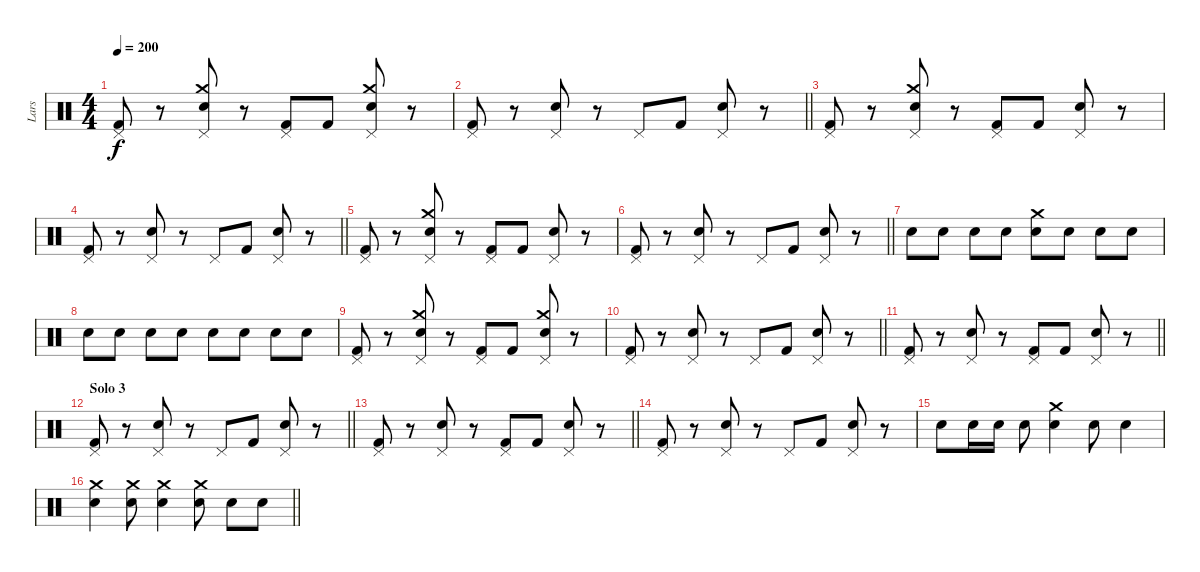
\track ("Lars" "Lars") {instrument percussion}
\staff {score}
\articulation defaults
\ts (4 4)
\tempo 200
\clef neutral
\ks c
("Pedal Hi-Hat (hit)" "Kick (hit) 2").8{dy f} r.8 ("Crash medium (hit)" "Pedal Hi-Hat (hit)" "Snare (hit) 2").8 r.8 ("Pedal Hi-Hat (hit)" "Kick (hit) 2").8 "Kick (hit) 2".8 ("Crash medium (hit)" "Pedal Hi-Hat (hit)" "Snare (hit) 2").8 r.8 |
\barLineRight lightlight
("Pedal Hi-Hat (hit)" "Kick (hit) 2").8 r.8 ("Pedal Hi-Hat (hit)" "Snare (hit) 2").8 r.8 "Pedal Hi-Hat (hit)".8 "Kick (hit) 2".8 ("Pedal Hi-Hat (hit)" "Snare (hit) 2").8 r.8 |
("Pedal Hi-Hat (hit)" "Kick (hit) 2").8 r.8 ("Crash medium (hit)" "Pedal Hi-Hat (hit)" "Snare (hit) 2").8 r.8 ("Pedal Hi-Hat (hit)" "Kick (hit) 2").8 "Kick (hit) 2".8 ("Pedal Hi-Hat (hit)" "Snare (hit) 2").8 r.8 |
\barLineRight lightlight
("Pedal Hi-Hat (hit)" "Kick (hit) 2").8 r.8 ("Pedal Hi-Hat (hit)" "Snare (hit) 2").8 r.8 "Pedal Hi-Hat (hit)".8 "Kick (hit) 2".8 ("Pedal Hi-Hat (hit)" "Snare (hit) 2").8 r.8 |
("Pedal Hi-Hat (hit)" "Kick (hit) 2").8 r.8 ("Crash medium (hit)" "Pedal Hi-Hat (hit)" "Snare (hit) 2").8 r.8 ("Pedal Hi-Hat (hit)" "Kick (hit) 2").8 "Kick (hit) 2".8 ("Pedal Hi-Hat (hit)" "Snare (hit) 2").8 r.8 |
\barLineRight lightlight
("Pedal Hi-Hat (hit)" "Kick (hit) 2").8 r.8 ("Pedal Hi-Hat (hit)" "Snare (hit) 2").8 r.8 "Pedal Hi-Hat (hit)".8 "Kick (hit) 2".8 ("Pedal Hi-Hat (hit)" "Snare (hit) 2").8 r.8 |
"Snare (hit) 2".8 "Snare (hit) 2".8 "Snare (hit) 2".8 "Snare (hit) 2".8 ("Crash medium (hit)" "Snare (hit) 2").8 "Snare (hit) 2".8 "Snare (hit) 2".8 "Snare (hit) 2".8 |
"Snare (hit) 2".8 "Snare (hit) 2".8 "Snare (hit) 2".8 "Snare (hit) 2".8 "Snare (hit) 2".8 "Snare (hit) 2".8 "Snare (hit) 2".8 "Snare (hit) 2".8 |
("Pedal Hi-Hat (hit)" "Kick (hit) 2").8 r.8 ("Crash medium (hit)" "Pedal Hi-Hat (hit)" "Snare (hit) 2").8 r.8 ("Pedal Hi-Hat (hit)" "Kick (hit) 2").8 "Kick (hit) 2".8 ("Crash medium (hit)" "Pedal Hi-Hat (hit)" "Snare (hit) 2").8 r.8 |
\barLineRight lightlight
("Pedal Hi-Hat (hit)" "Kick (hit) 2").8 r.8 ("Pedal Hi-Hat (hit)" "Snare (hit) 2").8 r.8 "Pedal Hi-Hat (hit)".8 "Kick (hit) 2".8 ("Pedal Hi-Hat (hit)" "Snare (hit) 2").8 r.8 |
\barLineRight lightlight
("Pedal Hi-Hat (hit)" "Kick (hit) 2").8 r.8 ("Pedal Hi-Hat (hit)" "Snare (hit) 2").8 r.8 ("Pedal Hi-Hat (hit)" "Kick (hit) 2").8 "Kick (hit) 2".8 ("Pedal Hi-Hat (hit)" "Snare (hit) 2").8 r.8 |
\section ("" "Solo 3")
\barLineRight lightlight
("Pedal Hi-Hat (hit)" "Kick (hit) 2").8 r.8 ("Pedal Hi-Hat (hit)" "Snare (hit) 2").8 r.8 "Pedal Hi-Hat (hit)".8 "Kick (hit) 2".8 ("Pedal Hi-Hat (hit)" "Snare (hit) 2").8 r.8 |
\barLineRight lightlight
("Pedal Hi-Hat (hit)" "Kick (hit) 2").8 r.8 ("Pedal Hi-Hat (hit)" "Snare (hit) 2").8 r.8 ("Pedal Hi-Hat (hit)" "Kick (hit) 2").8 "Kick (hit) 2".8 ("Pedal Hi-Hat (hit)" "Snare (hit) 2").8 r.8 |
("Pedal Hi-Hat (hit)" "Kick (hit) 2").8 r.8 ("Pedal Hi-Hat (hit)" "Snare (hit) 2").8 r.8 "Pedal Hi-Hat (hit)".8 "Kick (hit) 2".8 ("Pedal Hi-Hat (hit)" "Snare (hit) 2").8 r.8 |
"Snare (hit) 2".8 "Snare (hit) 2".16 "Snare (hit) 2".16 "Snare (hit) 2".8 ("Crash medium (hit)" "Snare (hit) 2").4 "Snare (hit) 2".8 "Snare (hit) 2".4 |
\barLineRight lightlight
("Crash medium (hit)" "Snare (hit) 2").4 ("Crash medium (hit)" "Snare (hit) 2").8 ("Crash medium (hit)" "Snare (hit) 2").4 ("Crash medium (hit)" "Snare (hit) 2").8 "Snare (hit) 2".8 "Snare (hit) 2".8
